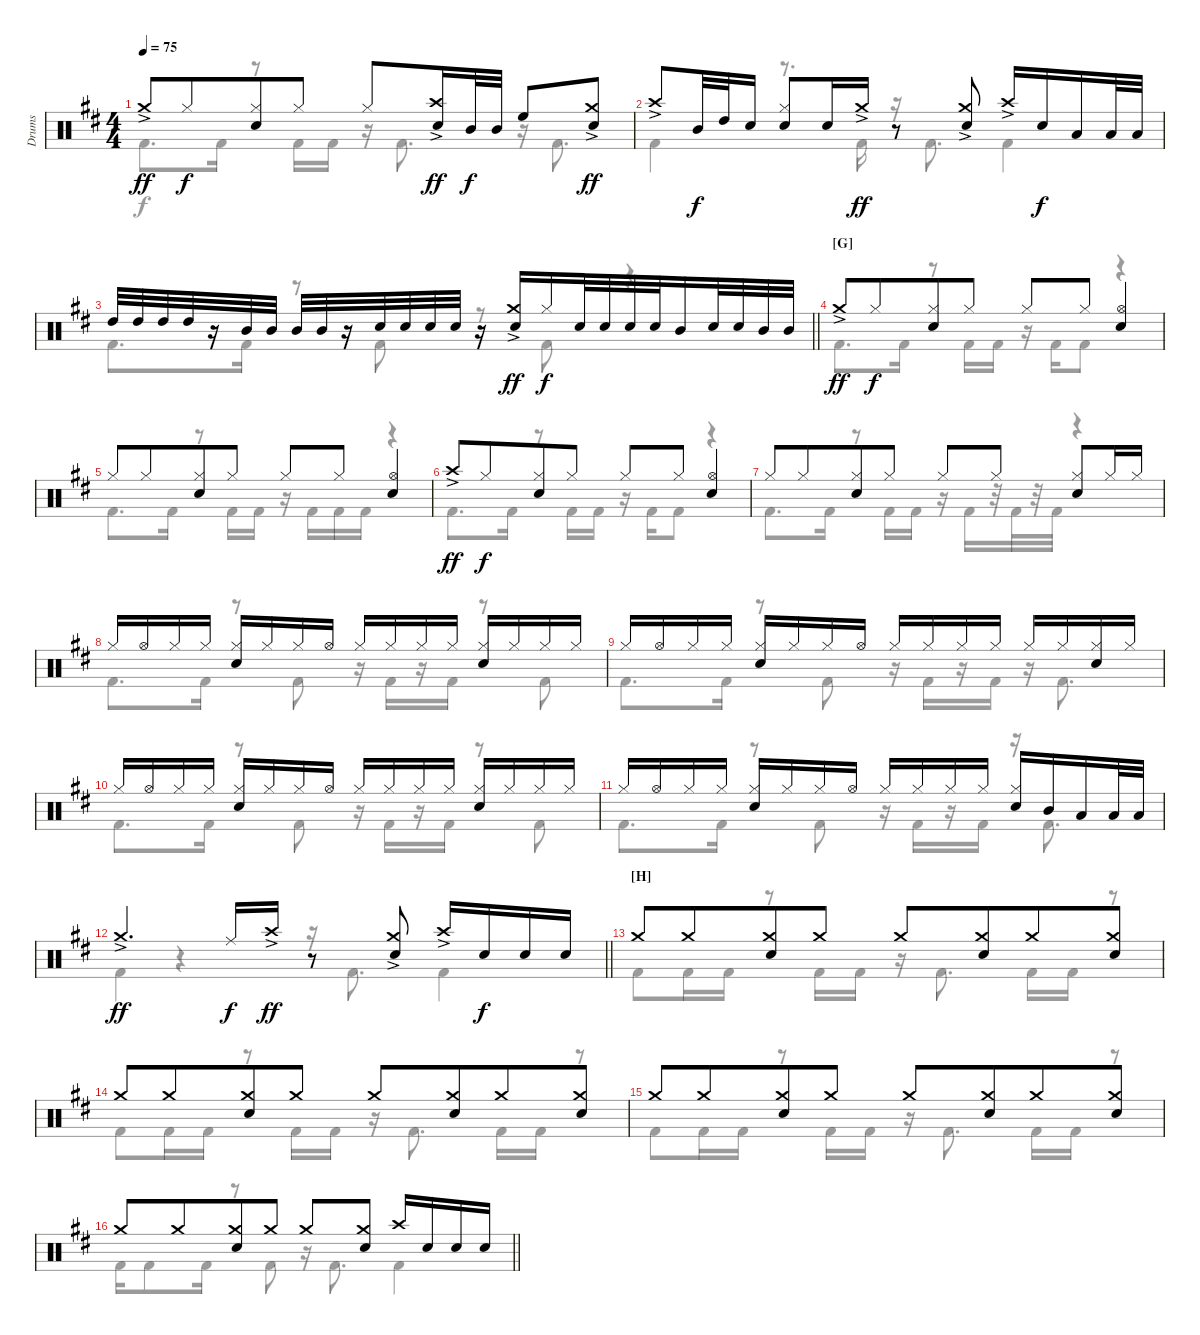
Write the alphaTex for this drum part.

\track ("Drums" "Drums") {instrument percussion}
\staff {score}
\articulation defaults
\voice
\ts (4 4)
\tempo 75
\clef neutral
\ks bminor "Crash medium (hit)"{ac}.8{dy ff} "Hi-Hat (closed)".8{dy f beam merge}
("Hi-Hat (closed)" "Snare (hit) 2").8 "Hi-Hat (closed)".8 "Hi-Hat (closed)".8{beam merge} ("Crash high (hit)"{ac} "Snare (hit) 2").16{dy ff} "Mid Tom (hit)".32{dy f} "Mid Tom (hit)".32 "High Floor Tom (hit)".8 ("Crash medium (hit)"{ac} "Snare (hit) 2").8{dy ff} |
"Crash high (hit)"{ac}.8 "Mid Tom (hit)".32{dy f} "High Tom (hit)".32 "Snare (hit) 2".16 ("Hi-Hat (closed)" "Snare (hit) 2").8 "Snare (hit) 2".16 "Crash medium (hit)"{ac}.16{dy ff} r.8 ("Crash medium (hit)"{ac} "Snare (hit) 2").8 "Crash high (hit)"{ac}.16 "Snare (hit) 2".16{dy f} "Low Tom (hit)".16 "Low Tom (hit)".32 "Low Tom (hit)".32 |
\barLineRight lightlight "High Tom (hit)".32 "High Tom (hit)".32 "High Tom (hit)".32 "High Tom (hit)".32
r.16 "Mid Tom (hit)".32 "Mid Tom (hit)".32 "Mid Tom (hit)".32 "Mid Tom (hit)".32 r.16 "Snare (hit) 2".32 "Snare (hit) 2".32 "Snare (hit) 2".32 "Snare (hit) 2".32 r.16 ("Crash medium (hit)"{ac} "Snare (hit) 2").16{dy ff} "Hi-Hat (closed)".16{dy f} "Snare (hit) 2".32 "Snare (hit) 2".32{beam merge} "Snare (hit) 2".32 "Snare (hit) 2".32 "Mid Tom (hit)".16 "Snare (hit) 2".32 "Snare (hit) 2".32 "Mid Tom (hit)".32{beam merge} "Mid Tom (hit)".32 |
\section ("" "[G]")
"Crash medium (hit)"{ac}.8{dy ff} "Hi-Hat (closed)".8{dy f beam merge} ("Hi-Hat (closed)" "Snare (hit) 2").8 "Hi-Hat (closed)".8 "Hi-Hat (closed)".8 "Hi-Hat (closed)".8 ("Hi-Hat (open)" "Snare (hit) 2").4 |
"Hi-Hat (closed)".8 "Hi-Hat (closed)".8{beam merge} ("Hi-Hat (closed)" "Snare (hit) 2").8 "Hi-Hat (closed)".8 "Hi-Hat (closed)".8 "Hi-Hat (closed)".8 ("Hi-Hat (open)" "Snare (hit) 2").4 |
"Crash high (hit)"{ac}.8{dy ff} "Hi-Hat (closed)".8{dy f beam merge} ("Hi-Hat (closed)" "Snare (hit) 2").8 "Hi-Hat (closed)".8 "Hi-Hat (closed)".8 "Hi-Hat (closed)".8 ("Hi-Hat (open)" "Snare (hit) 2").4 |
"Hi-Hat (closed)".8 "Hi-Hat (closed)".8{beam merge} ("Hi-Hat (closed)" "Snare (hit) 2").8 "Hi-Hat (closed)".8 "Hi-Hat (closed)".8 "Hi-Hat (closed)".8 ("Hi-Hat (closed)" "Snare (hit) 2").8 "Hi-Hat (closed)".16{beam merge} "Hi-Hat (closed)".16 |
"Hi-Hat (closed)".16 "Hi-Hat (open)".16 "Hi-Hat (closed)".16 "Hi-Hat (closed)".16 ("Hi-Hat (closed)" "Snare (hit) 2").16 "Hi-Hat (closed)".16 "Hi-Hat (closed)".16 "Hi-Hat (open)".16 "Hi-Hat (closed)".16 "Hi-Hat (closed)".16 "Hi-Hat (closed)".16 "Hi-Hat (closed)".16 ("Hi-Hat (closed)" "Snare (hit) 2").16 "Hi-Hat (closed)".16 "Hi-Hat (closed)".16 "Hi-Hat (closed)".16 |
"Hi-Hat (closed)".16 "Hi-Hat (open)".16 "Hi-Hat (closed)".16 "Hi-Hat (closed)".16 ("Hi-Hat (closed)" "Snare (hit) 2").16 "Hi-Hat (closed)".16 "Hi-Hat (closed)".16 "Hi-Hat (open)".16 "Hi-Hat (closed)".16 "Hi-Hat (closed)".16 "Hi-Hat (closed)".16 "Hi-Hat (closed)".16 "Hi-Hat (closed)".16 "Hi-Hat (closed)".16 ("Hi-Hat (closed)" "Snare (hit) 2").16 "Hi-Hat (closed)".16 |
"Hi-Hat (closed)".16 "Hi-Hat (open)".16 "Hi-Hat (closed)".16 "Hi-Hat (closed)".16 ("Hi-Hat (closed)" "Snare (hit) 2").16 "Hi-Hat (closed)".16 "Hi-Hat (closed)".16 "Hi-Hat (open)".16 "Hi-Hat (closed)".16 "Hi-Hat (closed)".16 "Hi-Hat (closed)".16 "Hi-Hat (closed)".16 ("Hi-Hat (closed)" "Snare (hit) 2").16 "Hi-Hat (closed)".16 "Hi-Hat (closed)".16 "Hi-Hat (closed)".16 |
"Hi-Hat (closed)".16 "Hi-Hat (open)".16 "Hi-Hat (closed)".16 "Hi-Hat (closed)".16 ("Hi-Hat (closed)" "Snare (hit) 2").16 "Hi-Hat (closed)".16 "Hi-Hat (closed)".16 "Hi-Hat (open)".16 "Hi-Hat (closed)".16 "Hi-Hat (closed)".16 "Hi-Hat (closed)".16 "Hi-Hat (closed)".16 ("Hi-Hat (closed)" "Snare (hit) 2").16 "Mid Tom (hit)".16 "Low Tom (hit)".16 "Low Tom (hit)".32 "Low Tom (hit)".32 |
\barLineRight lightlight "Crash medium (hit)"{ac}.4{d dy ff beam merge} "Ride (middle)".16{dy f} "Crash high (hit)"{ac}.16{dy ff}
r.8 ("Crash medium (hit)"{ac} "Snare (hit) 2").8 "Crash high (hit)"{ac}.16 "Snare (hit) 2".16{dy f} "Snare (hit) 2".16 "Snare (hit) 2".16 |
\section ("" "[H]")
\ks d "Crash medium (hit)".8 "Crash medium (hit)".8{beam merge}
("Crash medium (hit)" "Snare (hit) 2").8 "Crash medium (hit)".8 "Crash medium (hit)".8 ("Crash medium (hit)" "Snare (hit) 2").8{beam merge} "Crash medium (hit)".8 ("Crash medium (hit)" "Snare (hit) 2").8 |
\ks bminor "Crash medium (hit)".8 "Crash medium (hit)".8{beam merge}
("Crash medium (hit)" "Snare (hit) 2").8 "Crash medium (hit)".8 "Crash medium (hit)".8 ("Crash medium (hit)" "Snare (hit) 2").8{beam merge} "Crash medium (hit)".8 ("Crash medium (hit)" "Snare (hit) 2").8 |
"Crash medium (hit)".8 "Crash medium (hit)".8{beam merge} ("Crash medium (hit)" "Snare (hit) 2").8 "Crash medium (hit)".8 "Crash medium (hit)".8 ("Crash medium (hit)" "Snare (hit) 2").8{beam merge} "Crash medium (hit)".8 ("Crash medium (hit)" "Snare (hit) 2").8 |
\barLineRight lightlight "Crash medium (hit)".8 "Crash medium (hit)".8{beam merge}
("Crash medium (hit)" "Snare (hit) 2").8 "Crash medium (hit)".8 "Crash medium (hit)".8 ("Crash medium (hit)" "Snare (hit) 2").8 "Crash high (hit)".16 "Snare (hit) 2".16 "Snare (hit) 2".16{beam merge} "Snare (hit) 2".16
\voice
\clef neutral
\ottava regular
\simile none
\ks bminor "Kick (hit) 2".8{d dy f} "Kick (hit) 2".16
r.8 "Kick (hit) 2".16 "Kick (hit) 2".16 r.16 "Kick (hit) 2".8{d} r.16 "Kick (hit) 2".8{d} |
"Kick (hit) 2".4 r.8{d} "Kick (hit) 2".16 r.16 "Kick (hit) 2".8{d} "Kick (hit) 2".4 |
\barLineRight lightlight "Kick (hit) 2".8{d} "Kick (hit) 2".16
r.8 "Kick (hit) 2".8 r.8 "Kick (hit) 2".8 r.4 |
"Kick (hit) 2".8{d} "Kick (hit) 2".16 r.8 "Kick (hit) 2".16 "Kick (hit) 2".16 r.16 "Kick (hit) 2".16 "Kick (hit) 2".8 r.4 |
"Kick (hit) 2".8{d} "Kick (hit) 2".16 r.8 "Kick (hit) 2".16 "Kick (hit) 2".16 r.16 "Kick (hit) 2".16 "Kick (hit) 2".16 "Kick (hit) 2".16 r.4 |
"Kick (hit) 2".8{d} "Kick (hit) 2".16 r.8 "Kick (hit) 2".16 "Kick (hit) 2".16 r.16 "Kick (hit) 2".16 "Kick (hit) 2".8 r.4 |
"Kick (hit) 2".8{d} "Kick (hit) 2".16 r.8 "Kick (hit) 2".16 "Kick (hit) 2".16 r.16 "Kick (hit) 2".16 r.32 "Kick (hit) 2".32{beam merge} r.32 "Kick (hit) 2".32 r.4 |
"Kick (hit) 2".8{d} "Kick (hit) 2".16 r.8 "Kick (hit) 2".8 r.16{beam merge} "Kick (hit) 2".16 r.16 "Kick (hit) 2".16 r.8 "Kick (hit) 2".8 |
"Kick (hit) 2".8{d} "Kick (hit) 2".16 r.8 "Kick (hit) 2".8 r.16{beam merge} "Kick (hit) 2".16 r.16 "Kick (hit) 2".16 r.16 "Kick (hit) 2".8{d} |
"Kick (hit) 2".8{d} "Kick (hit) 2".16 r.8 "Kick (hit) 2".8 r.16{beam merge} "Kick (hit) 2".16 r.16 "Kick (hit) 2".16 r.8 "Kick (hit) 2".8 |
"Kick (hit) 2".8{d} "Kick (hit) 2".16 r.8 "Kick (hit) 2".8 r.16{beam merge} "Kick (hit) 2".16 r.16 "Kick (hit) 2".16 r.16 "Kick (hit) 2".8{d} |
\barLineRight lightlight "Kick (hit) 2".4
r.4 r.16 "Kick (hit) 2".8{d} "Kick (hit) 2".4 |
\ks d "Kick (hit) 2".8 "Kick (hit) 2".16 "Kick (hit) 2".16
r.8 "Kick (hit) 2".16 "Kick (hit) 2".16 r.16 "Kick (hit) 2".8{d} "Kick (hit) 2".16 "Kick (hit) 2".16 r.8 |
\ks bminor "Kick (hit) 2".8 "Kick (hit) 2".16 "Kick (hit) 2".16
r.8 "Kick (hit) 2".16 "Kick (hit) 2".16 r.16 "Kick (hit) 2".8{d} "Kick (hit) 2".16 "Kick (hit) 2".16 r.8 |
"Kick (hit) 2".8 "Kick (hit) 2".16 "Kick (hit) 2".16 r.8 "Kick (hit) 2".16 "Kick (hit) 2".16 r.16 "Kick (hit) 2".8{d} "Kick (hit) 2".16 "Kick (hit) 2".16 r.8 |
\barLineRight lightlight "Kick (hit) 2".16 "Kick (hit) 2".8 "Kick (hit) 2".16
r.8 "Kick (hit) 2".8 r.16 "Kick (hit) 2".8{d} "Kick (hit) 2".4
